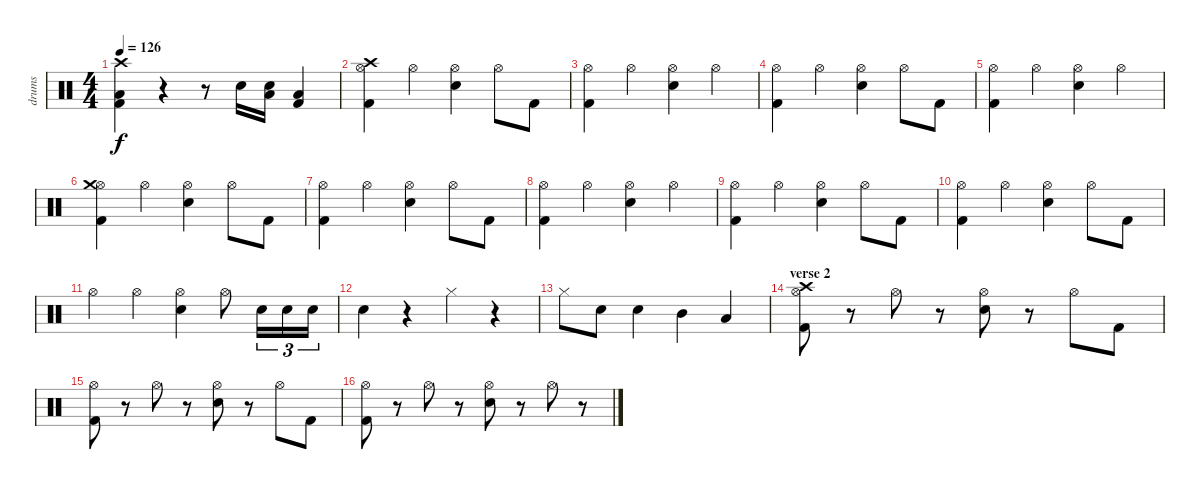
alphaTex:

\track ("drums" "drums") {instrument percussion}
\staff {score}
\articulation defaults
\ts (4 4)
\tempo 126
\clef neutral
\ks c
("Low Tom (hit)" "Kick (hit) 2" "Crash high (hit)").4{dy f} r.4 r.8 "Electric Snare (hit)".16 ("Low Floor Tom (hit)" "Snare (hit) 2").16 ("Low Tom (hit)" "Kick (hit) 2").4 |
("Kick (hit) 2" "Hi-Hat (open)" "Crash high (hit)").4 "Hi-Hat (open)".4 ("Electric Snare (hit)" "Hi-Hat (open)").4 "Hi-Hat (open)".8 "Kick (hit) 2".8 |
("Kick (hit) 2" "Hi-Hat (open)").4 "Hi-Hat (open)".4 ("Electric Snare (hit)" "Hi-Hat (open)").4 "Hi-Hat (open)".4 |
("Kick (hit) 2" "Hi-Hat (open)").4 "Hi-Hat (open)".4 ("Electric Snare (hit)" "Hi-Hat (open)").4 "Hi-Hat (open)".8 "Kick (hit) 2".8 |
("Kick (hit) 2" "Hi-Hat (open)").4 "Hi-Hat (open)".4 ("Electric Snare (hit)" "Hi-Hat (open)").4 "Hi-Hat (open)".4 |
("Kick (hit) 2" "Hi-Hat (open)" "Crash medium (hit)").4 "Hi-Hat (open)".4 ("Electric Snare (hit)" "Hi-Hat (open)").4 "Hi-Hat (open)".8 "Kick (hit) 2".8 |
("Kick (hit) 2" "Hi-Hat (open)").4 "Hi-Hat (open)".4 ("Electric Snare (hit)" "Hi-Hat (open)").4 "Hi-Hat (open)".8 "Kick (hit) 2".8 |
("Kick (hit) 2" "Hi-Hat (open)").4 "Hi-Hat (open)".4 ("Electric Snare (hit)" "Hi-Hat (open)").4 "Hi-Hat (open)".4 |
("Kick (hit) 2" "Hi-Hat (open)").4 "Hi-Hat (open)".4 ("Electric Snare (hit)" "Hi-Hat (open)").4 "Hi-Hat (open)".8 "Kick (hit) 2".8 |
("Kick (hit) 2" "Hi-Hat (open)").4 "Hi-Hat (open)".4 ("Electric Snare (hit)" "Hi-Hat (open)").4 "Hi-Hat (open)".8 "Kick (hit) 2".8 |
"Hi-Hat (open)".4 "Hi-Hat (open)".4 ("Electric Snare (hit)" "Hi-Hat (open)").4 "Hi-Hat (open)".8 "Electric Snare (hit)".16{tu (3 2)} "Electric Snare (hit)".16{tu (3 2)} "Electric Snare (hit)".16{tu (3 2)} |
"Electric Snare (hit)".4 r.4 "Hi-Hat (closed)".4 r.4 |
"Hi-Hat (closed)".8 "Electric Snare (hit)".8 "Electric Snare (hit)".4 "Mid Tom (hit)".4 "Low Tom (hit)".4 |
\section ("" "verse 2")
("Kick (hit) 2" "Hi-Hat (open)" "Crash high (hit)").8 r.8 "Hi-Hat (open)".8 r.8 ("Electric Snare (hit)" "Hi-Hat (open)").8 r.8 "Hi-Hat (open)".8 "Kick (hit) 2".8 |
("Kick (hit) 2" "Hi-Hat (open)").8 r.8 "Hi-Hat (open)".8 r.8 ("Electric Snare (hit)" "Hi-Hat (open)").8 r.8 "Hi-Hat (open)".8 "Kick (hit) 2".8 |
("Kick (hit) 2" "Hi-Hat (open)").8 r.8 "Hi-Hat (open)".8 r.8 ("Electric Snare (hit)" "Hi-Hat (open)").8 r.8 "Hi-Hat (open)".8 r.8
